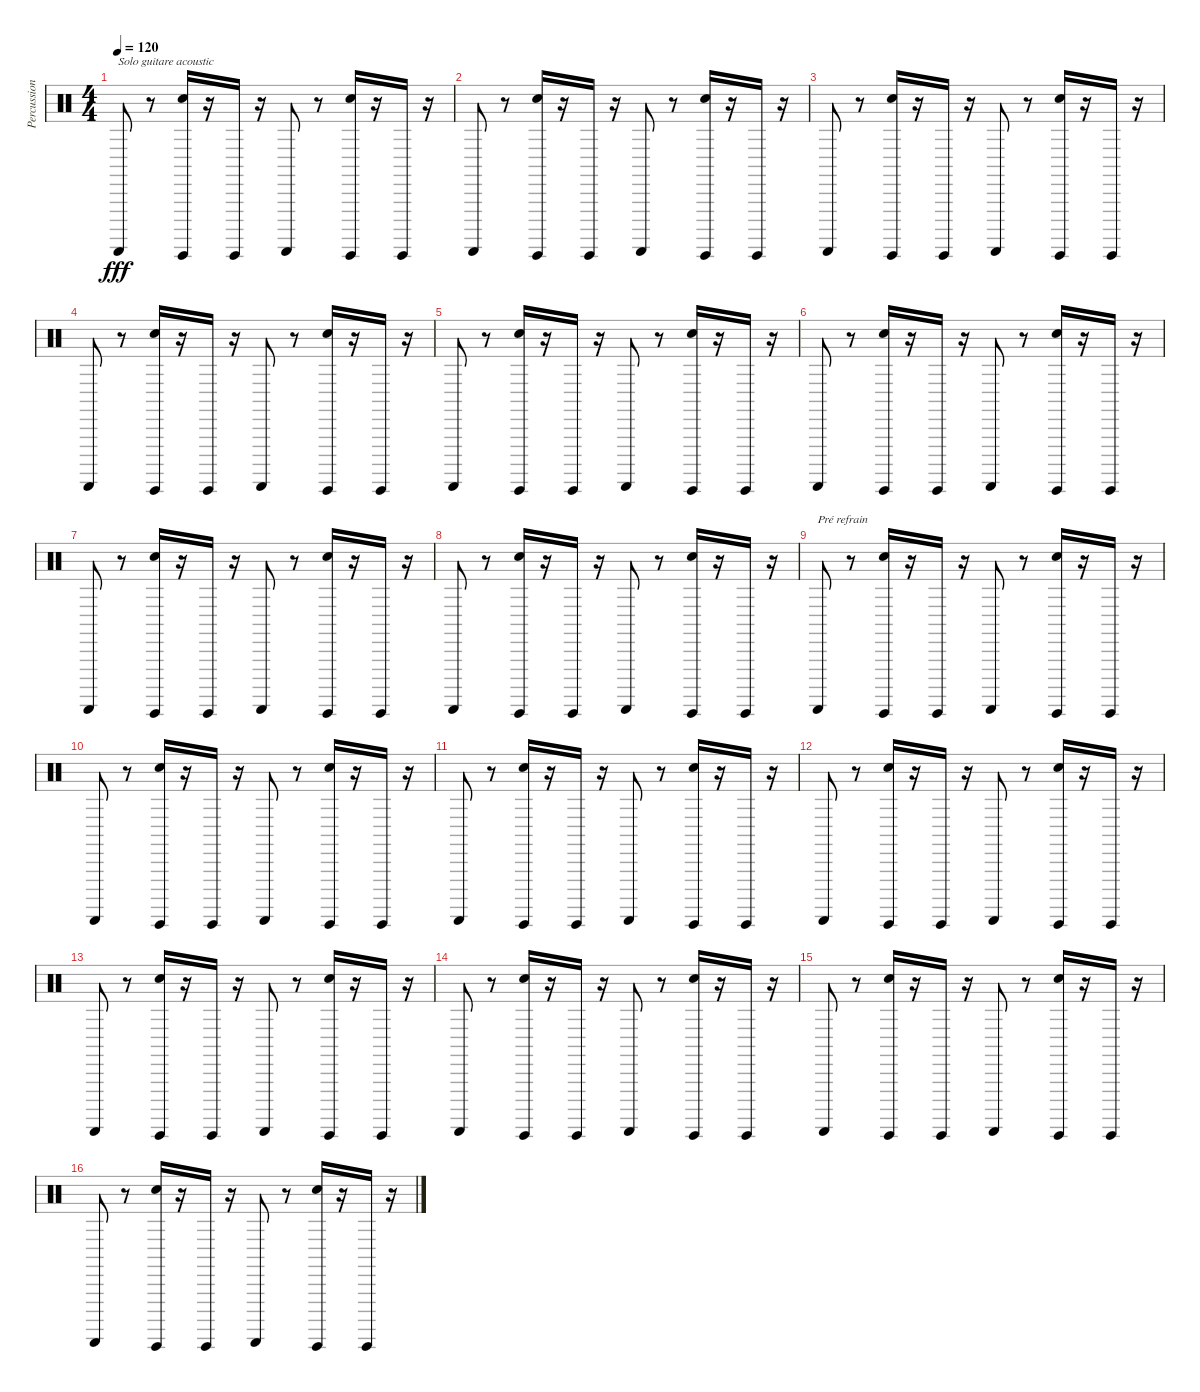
\track ("Percussions" "Percussion") {instrument percussion}
\staff {score}
\articulation defaults
\ts (4 4)
\tempo 120
\clef neutral
\ks c "Guiro (scrap-return)".8{txt "Solo guitare acoustic" dy fff}
r.8 ("Guiro (hit)" "Hand Clap (hit)").16 r.16 "Guiro (hit)".16 r.16 "Guiro (scrap-return)".8 r.8 ("Guiro (hit)" "Hand Clap (hit)").16 r.16 "Guiro (hit)".16 r.16 |
"Guiro (scrap-return)".8 r.8 ("Guiro (hit)" "Hand Clap (hit)").16 r.16 "Guiro (hit)".16 r.16 "Guiro (scrap-return)".8 r.8 ("Guiro (hit)" "Hand Clap (hit)").16 r.16 "Guiro (hit)".16 r.16 |
"Guiro (scrap-return)".8 r.8 ("Guiro (hit)" "Hand Clap (hit)").16 r.16 "Guiro (hit)".16 r.16 "Guiro (scrap-return)".8 r.8 ("Guiro (hit)" "Hand Clap (hit)").16 r.16 "Guiro (hit)".16 r.16 |
"Guiro (scrap-return)".8 r.8 ("Guiro (hit)" "Hand Clap (hit)").16 r.16 "Guiro (hit)".16 r.16 "Guiro (scrap-return)".8 r.8 ("Guiro (hit)" "Hand Clap (hit)").16 r.16 "Guiro (hit)".16 r.16 |
"Guiro (scrap-return)".8 r.8 ("Guiro (hit)" "Hand Clap (hit)").16 r.16 "Guiro (hit)".16 r.16 "Guiro (scrap-return)".8 r.8 ("Guiro (hit)" "Hand Clap (hit)").16 r.16 "Guiro (hit)".16 r.16 |
"Guiro (scrap-return)".8 r.8 ("Guiro (hit)" "Hand Clap (hit)").16 r.16 "Guiro (hit)".16 r.16 "Guiro (scrap-return)".8 r.8 ("Guiro (hit)" "Hand Clap (hit)").16 r.16 "Guiro (hit)".16 r.16 |
"Guiro (scrap-return)".8 r.8 ("Guiro (hit)" "Hand Clap (hit)").16 r.16 "Guiro (hit)".16 r.16 "Guiro (scrap-return)".8 r.8 ("Guiro (hit)" "Hand Clap (hit)").16 r.16 "Guiro (hit)".16 r.16 |
"Guiro (scrap-return)".8 r.8 ("Guiro (hit)" "Hand Clap (hit)").16 r.16 "Guiro (hit)".16 r.16 "Guiro (scrap-return)".8 r.8 ("Guiro (hit)" "Hand Clap (hit)").16 r.16 "Guiro (hit)".16 r.16 |
"Guiro (scrap-return)".8{txt "Pré refrain"} r.8 ("Guiro (hit)" "Hand Clap (hit)").16 r.16 "Guiro (hit)".16 r.16 "Guiro (scrap-return)".8 r.8 ("Guiro (hit)" "Hand Clap (hit)").16 r.16 "Guiro (hit)".16 r.16 |
"Guiro (scrap-return)".8 r.8 ("Guiro (hit)" "Hand Clap (hit)").16 r.16 "Guiro (hit)".16 r.16 "Guiro (scrap-return)".8 r.8 ("Guiro (hit)" "Hand Clap (hit)").16 r.16 "Guiro (hit)".16 r.16 |
"Guiro (scrap-return)".8 r.8 ("Guiro (hit)" "Hand Clap (hit)").16 r.16 "Guiro (hit)".16 r.16 "Guiro (scrap-return)".8 r.8 ("Guiro (hit)" "Hand Clap (hit)").16 r.16 "Guiro (hit)".16 r.16 |
"Guiro (scrap-return)".8 r.8 ("Guiro (hit)" "Hand Clap (hit)").16 r.16 "Guiro (hit)".16 r.16 "Guiro (scrap-return)".8 r.8 ("Guiro (hit)" "Hand Clap (hit)").16 r.16 "Guiro (hit)".16 r.16 |
"Guiro (scrap-return)".8 r.8 ("Guiro (hit)" "Hand Clap (hit)").16 r.16 "Guiro (hit)".16 r.16 "Guiro (scrap-return)".8 r.8 ("Guiro (hit)" "Hand Clap (hit)").16 r.16 "Guiro (hit)".16 r.16 |
"Guiro (scrap-return)".8 r.8 ("Guiro (hit)" "Hand Clap (hit)").16 r.16 "Guiro (hit)".16 r.16 "Guiro (scrap-return)".8 r.8 ("Guiro (hit)" "Hand Clap (hit)").16 r.16 "Guiro (hit)".16 r.16 |
"Guiro (scrap-return)".8 r.8 ("Guiro (hit)" "Hand Clap (hit)").16 r.16 "Guiro (hit)".16 r.16 "Guiro (scrap-return)".8 r.8 ("Guiro (hit)" "Hand Clap (hit)").16 r.16 "Guiro (hit)".16 r.16 |
"Guiro (scrap-return)".8 r.8 ("Guiro (hit)" "Hand Clap (hit)").16 r.16 "Guiro (hit)".16 r.16 "Guiro (scrap-return)".8 r.8 ("Guiro (hit)" "Hand Clap (hit)").16 r.16 "Guiro (hit)".16 r.16
